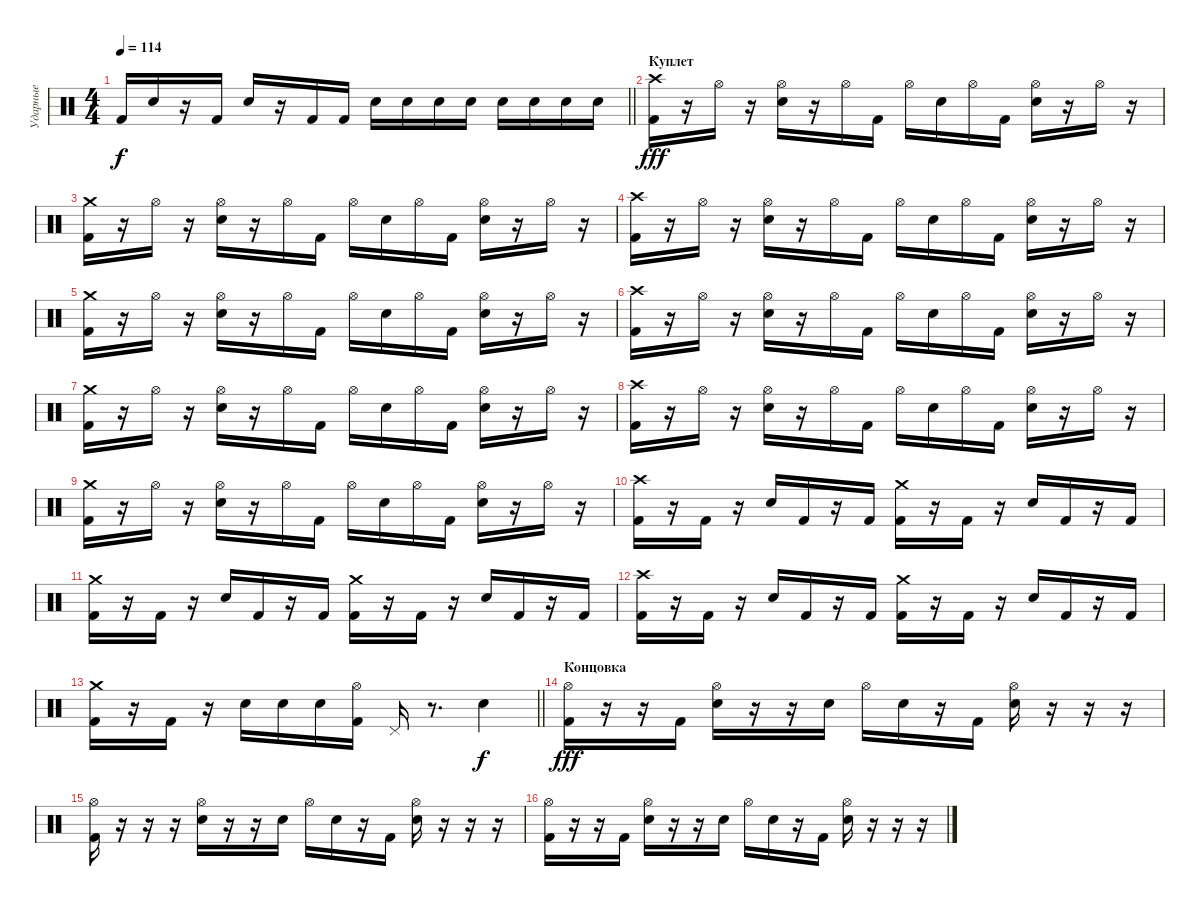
\track ("Ударные" "Ударные") {instrument percussion}
\staff {score}
\articulation defaults
\ts (4 4)
\tempo 114
\clef neutral
\barLineRight lightlight
\ks c "Kick (hit) 2".16{dy f} "Electric Snare (hit)".16
r.16 "Kick (hit) 2".16 "Electric Snare (hit)".16 r.16 "Kick (hit) 2".16 "Kick (hit) 2".16 "Electric Snare (hit)".16 "Electric Snare (hit)".16 "Electric Snare (hit)".16 "Electric Snare (hit)".16 "Electric Snare (hit)".16 "Electric Snare (hit)".16 "Electric Snare (hit)".16 "Electric Snare (hit)".16 |
\section ("" "Куплет")
("Kick (hit) 2" "Crash high (hit)").16{dy fff} r.16 "Hi-Hat (open)".16 r.16 ("Electric Snare (hit)" "Hi-Hat (open)").16 r.16 "Hi-Hat (open)".16 "Kick (hit) 2".16 "Hi-Hat (open)".16 "Electric Snare (hit)".16 "Hi-Hat (open)".16 "Kick (hit) 2".16 ("Electric Snare (hit)" "Hi-Hat (open)").16 r.16 "Hi-Hat (open)".16 r.16 |
("Kick (hit) 2" "Crash medium (hit)").16 r.16 "Hi-Hat (open)".16 r.16 ("Electric Snare (hit)" "Hi-Hat (open)").16 r.16 "Hi-Hat (open)".16 "Kick (hit) 2".16 "Hi-Hat (open)".16 "Electric Snare (hit)".16 "Hi-Hat (open)".16 "Kick (hit) 2".16 ("Electric Snare (hit)" "Hi-Hat (open)").16 r.16 "Hi-Hat (open)".16 r.16 |
("Kick (hit) 2" "Crash high (hit)").16 r.16 "Hi-Hat (open)".16 r.16 ("Electric Snare (hit)" "Hi-Hat (open)").16 r.16 "Hi-Hat (open)".16 "Kick (hit) 2".16 "Hi-Hat (open)".16 "Electric Snare (hit)".16 "Hi-Hat (open)".16 "Kick (hit) 2".16 ("Electric Snare (hit)" "Hi-Hat (open)").16 r.16 "Hi-Hat (open)".16 r.16 |
("Kick (hit) 2" "Crash medium (hit)").16 r.16 "Hi-Hat (open)".16 r.16 ("Electric Snare (hit)" "Hi-Hat (open)").16 r.16 "Hi-Hat (open)".16 "Kick (hit) 2".16 "Hi-Hat (open)".16 "Electric Snare (hit)".16 "Hi-Hat (open)".16 "Kick (hit) 2".16 ("Electric Snare (hit)" "Hi-Hat (open)").16 r.16 "Hi-Hat (open)".16 r.16 |
("Kick (hit) 2" "Crash high (hit)").16 r.16 "Hi-Hat (open)".16 r.16 ("Electric Snare (hit)" "Hi-Hat (open)").16 r.16 "Hi-Hat (open)".16 "Kick (hit) 2".16 "Hi-Hat (open)".16 "Electric Snare (hit)".16 "Hi-Hat (open)".16 "Kick (hit) 2".16 ("Electric Snare (hit)" "Hi-Hat (open)").16 r.16 "Hi-Hat (open)".16 r.16 |
("Kick (hit) 2" "Crash medium (hit)").16 r.16 "Hi-Hat (open)".16 r.16 ("Electric Snare (hit)" "Hi-Hat (open)").16 r.16 "Hi-Hat (open)".16 "Kick (hit) 2".16 "Hi-Hat (open)".16 "Electric Snare (hit)".16 "Hi-Hat (open)".16 "Kick (hit) 2".16 ("Electric Snare (hit)" "Hi-Hat (open)").16 r.16 "Hi-Hat (open)".16 r.16 |
("Kick (hit) 2" "Crash high (hit)").16 r.16 "Hi-Hat (open)".16 r.16 ("Electric Snare (hit)" "Hi-Hat (open)").16 r.16 "Hi-Hat (open)".16 "Kick (hit) 2".16 "Hi-Hat (open)".16 "Electric Snare (hit)".16 "Hi-Hat (open)".16 "Kick (hit) 2".16 ("Electric Snare (hit)" "Hi-Hat (open)").16 r.16 "Hi-Hat (open)".16 r.16 |
("Kick (hit) 2" "Crash medium (hit)").16 r.16 "Hi-Hat (open)".16 r.16 ("Electric Snare (hit)" "Hi-Hat (open)").16 r.16 "Hi-Hat (open)".16 "Kick (hit) 2".16 "Hi-Hat (open)".16 "Electric Snare (hit)".16 "Hi-Hat (open)".16 "Kick (hit) 2".16 ("Electric Snare (hit)" "Hi-Hat (open)").16 r.16 "Hi-Hat (open)".16 r.16 |
("Kick (hit) 2" "Crash high (hit)").16 r.16 "Kick (hit) 2".16 r.16 "Electric Snare (hit)".16 "Kick (hit) 2".16 r.16 "Kick (hit) 2".16 ("Kick (hit) 2" "Crash medium (hit)").16 r.16 "Kick (hit) 2".16 r.16 "Electric Snare (hit)".16 "Kick (hit) 2".16 r.16 "Kick (hit) 2".16 |
("Kick (hit) 2" "Crash medium (hit)").16 r.16 "Kick (hit) 2".16 r.16 "Electric Snare (hit)".16 "Kick (hit) 2".16 r.16 "Kick (hit) 2".16 ("Kick (hit) 2" "Crash medium (hit)").16 r.16 "Kick (hit) 2".16 r.16 "Electric Snare (hit)".16 "Kick (hit) 2".16 r.16 "Kick (hit) 2".16 |
("Kick (hit) 2" "Crash high (hit)").16 r.16 "Kick (hit) 2".16 r.16 "Electric Snare (hit)".16 "Kick (hit) 2".16 r.16 "Kick (hit) 2".16 ("Kick (hit) 2" "Crash medium (hit)").16 r.16 "Kick (hit) 2".16 r.16 "Electric Snare (hit)".16 "Kick (hit) 2".16 r.16 "Kick (hit) 2".16 |
\barLineRight lightlight
("Kick (hit) 2" "Crash medium (hit)").16 r.16 "Kick (hit) 2".16 r.16 "Electric Snare (hit)".16 "Electric Snare (hit)".16 "Electric Snare (hit)".16 ("Kick (hit) 2" "Hi-Hat (open)").16 "Pedal Hi-Hat (hit)".16 r.8{d} "Snare (hit) 2".4{dy f} |
\section ("" "Концовка")
("Kick (hit) 2" "Hi-Hat (open)").16{dy fff} r.16 r.16 "Kick (hit) 2".16 ("Electric Snare (hit)" "Hi-Hat (open)").16 r.16 r.16 "Electric Snare (hit)".16 "Hi-Hat (open)".16 "Electric Snare (hit)".16 r.16 "Kick (hit) 2".16 ("Electric Snare (hit)" "Hi-Hat (open)").16 r.16 r.16 r.16 |
("Kick (hit) 2" "Hi-Hat (open)").16 r.16 r.16 r.16 ("Electric Snare (hit)" "Hi-Hat (open)").16 r.16 r.16 "Electric Snare (hit)".16 "Hi-Hat (open)".16 "Electric Snare (hit)".16 r.16 "Kick (hit) 2".16 ("Electric Snare (hit)" "Hi-Hat (open)").16 r.16 r.16 r.16 |
("Kick (hit) 2" "Hi-Hat (open)").16 r.16 r.16 "Kick (hit) 2".16 ("Electric Snare (hit)" "Hi-Hat (open)").16 r.16 r.16 "Electric Snare (hit)".16 "Hi-Hat (open)".16 "Electric Snare (hit)".16 r.16 "Kick (hit) 2".16 ("Electric Snare (hit)" "Hi-Hat (open)").16 r.16 r.16 r.16
